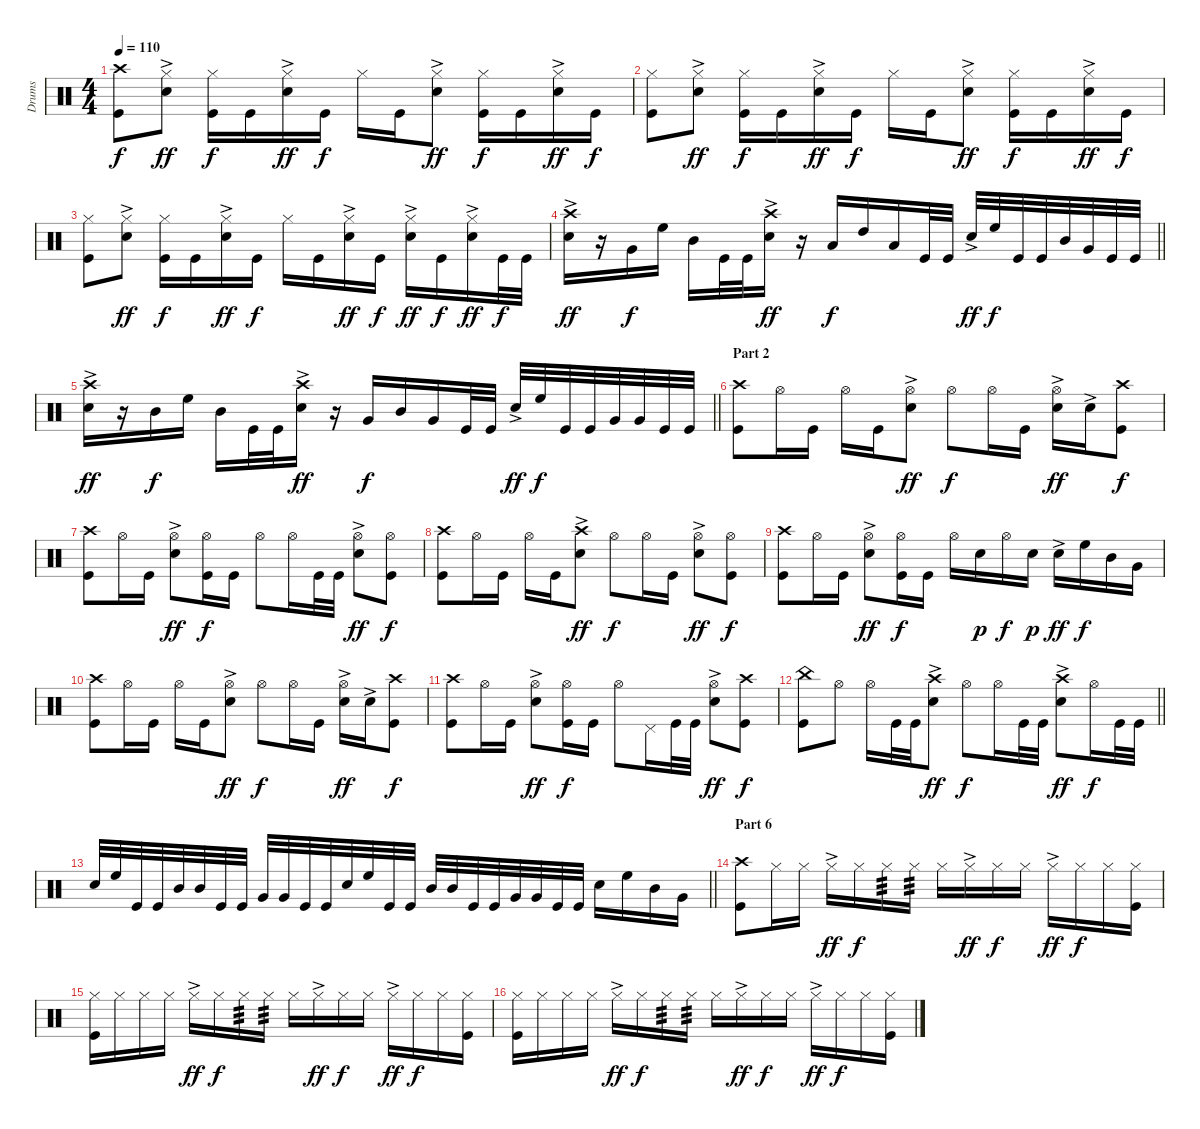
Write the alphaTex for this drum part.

\track ("Drums" "Drums") {instrument percussion}
\staff {score}
\articulation defaults
\ts (4 4)
\tempo 110
\clef neutral
\ks c
("Kick (hit)" "Crash high (hit)").8{dy f} ("Hi-Hat (closed)" "Electric Snare (hit)"{ac}).8{dy ff} ("Hi-Hat (closed)" "Kick (hit)").16{dy f} "Kick (hit)".16 ("Hi-Hat (closed)" "Electric Snare (hit)"{ac}).16{dy ff} "Kick (hit)".16{dy f} "Hi-Hat (closed)".16 "Kick (hit)".16 ("Electric Snare (hit)"{ac} "Hi-Hat (closed)").8{dy ff} ("Kick (hit)" "Hi-Hat (closed)").16{dy f} "Kick (hit)".16 ("Electric Snare (hit)"{ac} "Hi-Hat (closed)").16{dy ff} "Kick (hit)".16{dy f} |
("Kick (hit)" "Hi-Hat (closed)").8 ("Hi-Hat (closed)" "Electric Snare (hit)"{ac}).8{dy ff} ("Hi-Hat (closed)" "Kick (hit)").16{dy f} "Kick (hit)".16 ("Hi-Hat (closed)" "Electric Snare (hit)"{ac}).16{dy ff} "Kick (hit)".16{dy f} "Hi-Hat (closed)".16 "Kick (hit)".16 ("Electric Snare (hit)"{ac} "Hi-Hat (closed)").8{dy ff} ("Kick (hit)" "Hi-Hat (closed)").16{dy f} "Kick (hit)".16 ("Electric Snare (hit)"{ac} "Hi-Hat (closed)").16{dy ff} "Kick (hit)".16{dy f} |
("Kick (hit)" "Hi-Hat (closed)").8 ("Hi-Hat (closed)" "Electric Snare (hit)"{ac}).8{dy ff} ("Hi-Hat (closed)" "Kick (hit)").16{dy f} "Kick (hit)".16 ("Hi-Hat (closed)" "Electric Snare (hit)"{ac}).16{dy ff} "Kick (hit)".16{dy f} "Hi-Hat (closed)".16 "Kick (hit)".16 ("Electric Snare (hit)"{ac} "Hi-Hat (closed)").16{dy ff} "Kick (hit)".16{dy f} ("Electric Snare (hit)"{ac} "Hi-Hat (closed)").16{dy ff} "Kick (hit)".16{dy f} ("Electric Snare (hit)"{ac} "Hi-Hat (closed)").16{dy ff} "Kick (hit)".32{dy f} "Kick (hit)".32 |
\barLineRight lightlight
("Electric Snare (hit)"{ac} "Crash high (hit)").16{dy ff} r.16 "Very Low Tom (hit)".16{dy f} "High Floor Tom (hit)".16 "Mid Tom (hit)".16 "Kick (hit)".32 "Kick (hit)".32 ("Electric Snare (hit)"{ac} "Crash high (hit)").16{dy ff} r.16 "Low Floor Tom (hit)".16{dy f} "High Tom (hit)".16 "Low Tom (hit)".16 "Kick (hit)".32 "Kick (hit)".32 "Electric Snare (hit)"{ac}.32{dy ff} "High Floor Tom (hit)".32{dy f} "Kick (hit)".32 "Kick (hit)".32 "Mid Tom (hit)".32 "Very Low Tom (hit)".32 "Kick (hit)".32 "Kick (hit)".32 |
\barLineRight lightlight
("Electric Snare (hit)"{ac} "Crash high (hit)").16{dy ff} r.16 "Mid Tom (hit)".16{dy f} "High Floor Tom (hit)".16 "Mid Tom (hit)".16 "Kick (hit)".32 "Kick (hit)".32 ("Electric Snare (hit)"{ac} "Crash high (hit)").16{dy ff} r.16 "Very Low Tom (hit)".16{dy f} "Mid Tom (hit)".16 "Very Low Tom (hit)".16 "Kick (hit)".32 "Kick (hit)".32 "Electric Snare (hit)"{ac}.32{dy ff} "High Floor Tom (hit)".32{dy f} "Kick (hit)".32 "Kick (hit)".32 "Very Low Tom (hit)".32 "Very Low Tom (hit)".32 "Kick (hit)".32 "Kick (hit)".32 |
\section ("" "Part 2")
("Crash high (hit)" "Kick (hit)").8 "Hi-Hat (open)".16 "Kick (hit)".16 "Hi-Hat (open)".16 "Kick (hit)".16 ("Electric Snare (hit)"{ac} "Hi-Hat (open)").8{dy ff} "Hi-Hat (open)".8{dy f} "Hi-Hat (open)".16 "Kick (hit)".16 ("Electric Snare (hit)"{ac} "Hi-Hat (open)").16{dy ff} "Electric Snare (hit)"{ac}.16 ("Kick (hit)" "Crash high (hit)").8{dy f} |
("Kick (hit)" "Crash high (hit)").8 "Hi-Hat (open)".16 "Kick (hit)".16 ("Electric Snare (hit)"{ac} "Hi-Hat (open)").8{dy ff} ("Hi-Hat (open)" "Kick (hit)").16{dy f} "Kick (hit)".16 "Hi-Hat (open)".8 "Hi-Hat (open)".16 "Kick (hit)".32 "Kick (hit)".32 ("Electric Snare (hit)"{ac} "Hi-Hat (open)").8{dy ff} ("Kick (hit)" "Hi-Hat (open)").8{dy f} |
("Crash high (hit)" "Kick (hit)").8 "Hi-Hat (open)".16 "Kick (hit)".16 "Hi-Hat (open)".16 "Kick (hit)".16 ("Electric Snare (hit)"{ac} "Crash high (hit)").8{dy ff} "Hi-Hat (open)".8{dy f} "Hi-Hat (open)".16 "Kick (hit)".16 ("Electric Snare (hit)"{ac} "Hi-Hat (open)").8{dy ff} ("Kick (hit)" "Hi-Hat (open)").8{dy f} |
("Kick (hit)" "Crash high (hit)").8 "Hi-Hat (open)".16 "Kick (hit)".16 ("Electric Snare (hit)"{ac} "Hi-Hat (open)").8{dy ff} ("Hi-Hat (open)" "Kick (hit)").16{dy f} "Kick (hit)".16 "Hi-Hat (open)".16 "Electric Snare (hit)".16{dy p} "Hi-Hat (open)".16{dy f} "Electric Snare (hit)".16{dy p} "Electric Snare (hit)"{ac}.16{dy ff} "High Floor Tom (hit)".16{dy f} "Mid Tom (hit)".16 "Very Low Tom (hit)".16 |
("Crash high (hit)" "Kick (hit)").8 "Hi-Hat (open)".16 "Kick (hit)".16 "Hi-Hat (open)".16 "Kick (hit)".16 ("Electric Snare (hit)"{ac} "Hi-Hat (open)").8{dy ff} "Hi-Hat (open)".8{dy f} "Hi-Hat (open)".16 "Kick (hit)".16 ("Electric Snare (hit)"{ac} "Hi-Hat (open)").16{dy ff} "Electric Snare (hit)"{ac}.16 ("Kick (hit)" "Crash high (hit)").8{dy f} |
("Kick (hit)" "Crash high (hit)").8 "Hi-Hat (open)".16 "Kick (hit)".16 ("Electric Snare (hit)"{ac} "Hi-Hat (open)").8{dy ff} ("Hi-Hat (open)" "Kick (hit)").16{dy f} "Kick (hit)".16 "Hi-Hat (open)".8 "Pedal Hi-Hat (hit)".16 "Kick (hit)".32 "Kick (hit)".32 ("Electric Snare (hit)"{ac} "Hi-Hat (open)").8{dy ff} ("Kick (hit)" "Crash high (hit)").8{dy f} |
\barLineRight lightlight
("China (hit)" "Kick (hit)").8 "Hi-Hat (open)".8 "Hi-Hat (open)".16 "Kick (hit)".32 "Kick (hit)".32 ("Electric Snare (hit)"{ac} "Crash high (hit)").8{dy ff} "Hi-Hat (open)".8{dy f} "Hi-Hat (open)".16 "Kick (hit)".32 "Kick (hit)".32 ("Electric Snare (hit)"{ac} "Crash high (hit)").8{dy ff} "Hi-Hat (open)".16{dy f} "Kick (hit)".32 "Kick (hit)".32 |
\barLineRight lightlight "Electric Snare (hit)".32 "High Floor Tom (hit)".32 "Kick (hit)".32 "Kick (hit)".32 "Mid Tom (hit)".32 "Mid Tom (hit)".32 "Kick (hit)".32 "Kick (hit)".32 "Very Low Tom (hit)".32 "Very Low Tom (hit)".32 "Kick (hit)".32 "Kick (hit)".32 "Electric Snare (hit)".32 "High Floor Tom (hit)".32 "Kick (hit)".32 "Kick (hit)".32 "Mid Tom (hit)".32 "Mid Tom (hit)".32 "Kick (hit)".32 "Kick (hit)".32 "Very Low Tom (hit)".32 "Very Low Tom (hit)".32 "Kick (hit)".32 "Kick (hit)".32 "Electric Snare (hit)".16 "High Floor Tom (hit)".16 "Mid Tom (hit)".16 "Very Low Tom (hit)".16
|
\section ("" "Part 6")
("Kick (hit)" "Crash high (hit)").8 "Hi-Hat (closed)".16 "Hi-Hat (closed)".16 "Hi-Hat (closed)"{ac}.16{dy ff} "Hi-Hat (closed)".16{dy f} "Hi-Hat (closed)".16{tp 3} "Hi-Hat (closed)".16{tp 3} "Hi-Hat (closed)".16 "Hi-Hat (closed)"{ac}.16{dy ff} "Hi-Hat (closed)".16{dy f} "Hi-Hat (closed)".16 "Hi-Hat (closed)"{ac}.16{dy ff} "Hi-Hat (closed)".16{dy f} "Hi-Hat (closed)".16 ("Hi-Hat (closed)" "Kick (hit)").16 |
("Hi-Hat (closed)" "Kick (hit)").16 "Hi-Hat (closed)".16 "Hi-Hat (closed)".16 "Hi-Hat (closed)".16 "Hi-Hat (closed)"{ac}.16{dy ff} "Hi-Hat (closed)".16{dy f} "Hi-Hat (closed)".16{tp 3} "Hi-Hat (closed)".16{tp 3} "Hi-Hat (closed)".16 "Hi-Hat (closed)"{ac}.16{dy ff} "Hi-Hat (closed)".16{dy f} "Hi-Hat (closed)".16 "Hi-Hat (closed)"{ac}.16{dy ff} "Hi-Hat (closed)".16{dy f} "Hi-Hat (closed)".16 ("Hi-Hat (closed)" "Kick (hit)").16 |
("Hi-Hat (closed)" "Kick (hit)").16 "Hi-Hat (closed)".16 "Hi-Hat (closed)".16 "Hi-Hat (closed)".16 "Hi-Hat (closed)"{ac}.16{dy ff} "Hi-Hat (closed)".16{dy f} "Hi-Hat (closed)".16{tp 3} "Hi-Hat (closed)".16{tp 3} "Hi-Hat (closed)".16 "Hi-Hat (closed)"{ac}.16{dy ff} "Hi-Hat (closed)".16{dy f} "Hi-Hat (closed)".16 "Hi-Hat (closed)"{ac}.16{dy ff} "Hi-Hat (closed)".16{dy f} "Hi-Hat (closed)".16 ("Hi-Hat (closed)" "Kick (hit)").16
